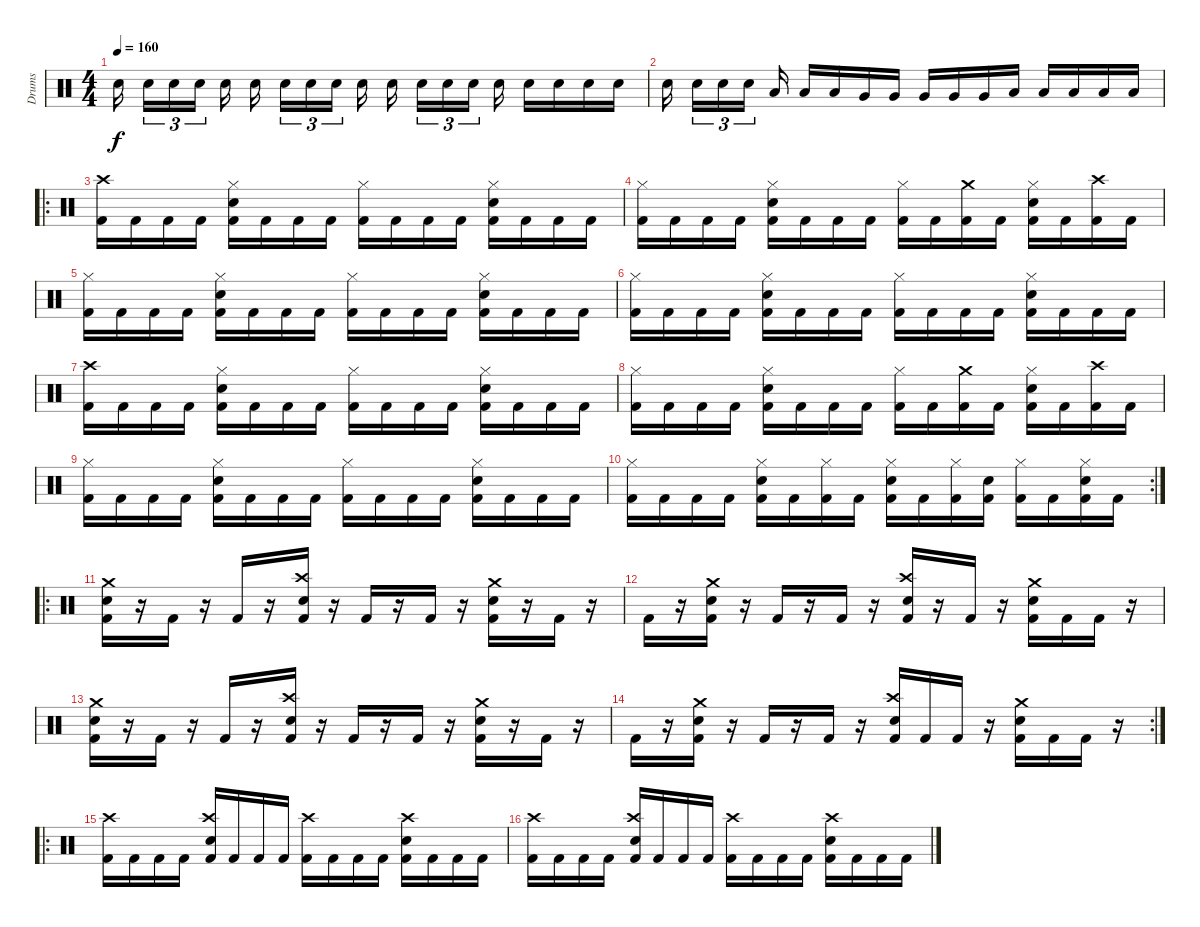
\track ("Drums" "Drums") {instrument percussion}
\staff {score}
\articulation defaults
\ts (4 4)
\tempo 160
\clef neutral
\ks c "Snare (hit) 2".16{dy f} "Snare (hit) 2".16{tu (3 2)} "Snare (hit) 2".16{tu (3 2)} "Snare (hit) 2".16{tu (3 2)} "Snare (hit) 2".16 "Snare (hit) 2".16 "Snare (hit) 2".16{tu (3 2)} "Snare (hit) 2".16{tu (3 2)} "Snare (hit) 2".16{tu (3 2)} "Snare (hit) 2".16 "Snare (hit) 2".16 "Snare (hit) 2".16{tu (3 2)} "Snare (hit) 2".16{tu (3 2)} "Snare (hit) 2".16{tu (3 2)} "Snare (hit) 2".16 "Snare (hit) 2".16 "Snare (hit) 2".16 "Snare (hit) 2".16 "Snare (hit) 2".16
|
"Snare (hit) 2".16 "Snare (hit) 2".16{tu (3 2)} "Snare (hit) 2".16{tu (3 2)} "Snare (hit) 2".16{tu (3 2)} "Low Tom (hit)".16 "Low Tom (hit)".16 "Low Tom (hit)".16 "Very Low Tom (hit)".16 "Very Low Tom (hit)".16 "Very Low Tom (hit)".16 "Very Low Tom (hit)".16 "Very Low Tom (hit)".16 "Low Floor Tom (hit)".16 "Low Floor Tom (hit)".16 "Low Floor Tom (hit)".16 "Low Floor Tom (hit)".16 "Low Floor Tom (hit)".16 |
\ro
("Crash high (hit)" "Kick (hit) 2").16 "Kick (hit) 2".16 "Kick (hit) 2".16 "Kick (hit) 2".16 ("Hi-Hat (closed)" "Snare (hit) 2" "Kick (hit) 2").16 "Kick (hit) 2".16 "Kick (hit) 2".16 "Kick (hit) 2".16 ("Hi-Hat (closed)" "Kick (hit) 2").16 "Kick (hit) 2".16 "Kick (hit) 2".16 "Kick (hit) 2".16 ("Hi-Hat (closed)" "Snare (hit) 2" "Kick (hit) 2").16 "Kick (hit) 2".16 "Kick (hit) 2".16 "Kick (hit) 2".16 |
("Hi-Hat (closed)" "Kick (hit) 2").16 "Kick (hit) 2".16 "Kick (hit) 2".16 "Kick (hit) 2".16 ("Hi-Hat (closed)" "Snare (hit) 2" "Kick (hit) 2").16 "Kick (hit) 2".16 "Kick (hit) 2".16 "Kick (hit) 2".16 ("Hi-Hat (closed)" "Kick (hit) 2").16 "Kick (hit) 2".16 ("Crash medium (hit)" "Kick (hit) 2").16 "Kick (hit) 2".16 ("Hi-Hat (closed)" "Snare (hit) 2" "Kick (hit) 2").16 "Kick (hit) 2".16 ("Crash high (hit)" "Kick (hit) 2").16 "Kick (hit) 2".16 |
("Hi-Hat (closed)" "Kick (hit) 2").16 "Kick (hit) 2".16 "Kick (hit) 2".16 "Kick (hit) 2".16 ("Hi-Hat (closed)" "Snare (hit) 2" "Kick (hit) 2").16 "Kick (hit) 2".16 "Kick (hit) 2".16 "Kick (hit) 2".16 ("Hi-Hat (closed)" "Kick (hit) 2").16 "Kick (hit) 2".16 "Kick (hit) 2".16 "Kick (hit) 2".16 ("Hi-Hat (closed)" "Snare (hit) 2" "Kick (hit) 2").16 "Kick (hit) 2".16 "Kick (hit) 2".16 "Kick (hit) 2".16 |
("Hi-Hat (closed)" "Kick (hit) 2").16 "Kick (hit) 2".16 "Kick (hit) 2".16 "Kick (hit) 2".16 ("Hi-Hat (closed)" "Snare (hit) 2" "Kick (hit) 2").16 "Kick (hit) 2".16 "Kick (hit) 2".16 "Kick (hit) 2".16 ("Hi-Hat (closed)" "Kick (hit) 2").16 "Kick (hit) 2".16 "Kick (hit) 2".16 "Kick (hit) 2".16 ("Hi-Hat (closed)" "Snare (hit) 2" "Kick (hit) 2").16 "Kick (hit) 2".16 "Kick (hit) 2".16 "Kick (hit) 2".16 |
("Crash high (hit)" "Kick (hit) 2").16 "Kick (hit) 2".16 "Kick (hit) 2".16 "Kick (hit) 2".16 ("Hi-Hat (closed)" "Snare (hit) 2" "Kick (hit) 2").16 "Kick (hit) 2".16 "Kick (hit) 2".16 "Kick (hit) 2".16 ("Hi-Hat (closed)" "Kick (hit) 2").16 "Kick (hit) 2".16 "Kick (hit) 2".16 "Kick (hit) 2".16 ("Hi-Hat (closed)" "Snare (hit) 2" "Kick (hit) 2").16 "Kick (hit) 2".16 "Kick (hit) 2".16 "Kick (hit) 2".16 |
("Hi-Hat (closed)" "Kick (hit) 2").16 "Kick (hit) 2".16 "Kick (hit) 2".16 "Kick (hit) 2".16 ("Hi-Hat (closed)" "Snare (hit) 2" "Kick (hit) 2").16 "Kick (hit) 2".16 "Kick (hit) 2".16 "Kick (hit) 2".16 ("Hi-Hat (closed)" "Kick (hit) 2").16 "Kick (hit) 2".16 ("Crash medium (hit)" "Kick (hit) 2").16 "Kick (hit) 2".16 ("Hi-Hat (closed)" "Snare (hit) 2" "Kick (hit) 2").16 "Kick (hit) 2".16 ("Crash high (hit)" "Kick (hit) 2").16 "Kick (hit) 2".16 |
("Hi-Hat (closed)" "Kick (hit) 2").16 "Kick (hit) 2".16 "Kick (hit) 2".16 "Kick (hit) 2".16 ("Hi-Hat (closed)" "Snare (hit) 2" "Kick (hit) 2").16 "Kick (hit) 2".16 "Kick (hit) 2".16 "Kick (hit) 2".16 ("Hi-Hat (closed)" "Kick (hit) 2").16 "Kick (hit) 2".16 "Kick (hit) 2".16 "Kick (hit) 2".16 ("Hi-Hat (closed)" "Snare (hit) 2" "Kick (hit) 2").16 "Kick (hit) 2".16 "Kick (hit) 2".16 "Kick (hit) 2".16 |
\rc 2
("Hi-Hat (closed)" "Kick (hit) 2").16 "Kick (hit) 2".16 "Kick (hit) 2".16 "Kick (hit) 2".16 ("Hi-Hat (closed)" "Snare (hit) 2" "Kick (hit) 2").16 "Kick (hit) 2".16 ("Hi-Hat (closed)" "Kick (hit) 2").16 "Kick (hit) 2".16 ("Hi-Hat (closed)" "Snare (hit) 2" "Kick (hit) 2").16 "Kick (hit) 2".16 ("Hi-Hat (closed)" "Kick (hit) 2").16 ("Snare (hit) 2" "Kick (hit) 2").16 ("Hi-Hat (closed)" "Kick (hit) 2").16 "Kick (hit) 2".16 ("Hi-Hat (closed)" "Snare (hit) 2" "Kick (hit) 2").16 "Kick (hit) 2".16 |
\ro
("Crash medium (hit)" "Snare (hit) 2" "Kick (hit) 2").16 r.16 "Kick (hit) 2".16 r.16 "Kick (hit) 2".16 r.16 ("Crash high (hit)" "Snare (hit) 2" "Kick (hit) 2").16 r.16 "Kick (hit) 2".16 r.16 "Kick (hit) 2".16 r.16 ("Crash medium (hit)" "Snare (hit) 2" "Kick (hit) 2").16 r.16 "Kick (hit) 2".16 r.16 |
"Kick (hit) 2".16 r.16 ("Crash medium (hit)" "Snare (hit) 2" "Kick (hit) 2").16 r.16 "Kick (hit) 2".16 r.16 "Kick (hit) 2".16 r.16 ("Crash high (hit)" "Snare (hit) 2" "Kick (hit) 2").16 r.16 "Kick (hit) 2".16 r.16 ("Crash medium (hit)" "Snare (hit) 2" "Kick (hit) 2").16 "Kick (hit) 2".16 "Kick (hit) 2".16 r.16 |
("Crash medium (hit)" "Snare (hit) 2" "Kick (hit) 2").16 r.16 "Kick (hit) 2".16 r.16 "Kick (hit) 2".16 r.16 ("Crash high (hit)" "Snare (hit) 2" "Kick (hit) 2").16 r.16 "Kick (hit) 2".16 r.16 "Kick (hit) 2".16 r.16 ("Crash medium (hit)" "Snare (hit) 2" "Kick (hit) 2").16 r.16 "Kick (hit) 2".16 r.16 |
\rc 2 "Kick (hit) 2".16
r.16 ("Crash medium (hit)" "Snare (hit) 2" "Kick (hit) 2").16 r.16 "Kick (hit) 2".16 r.16 "Kick (hit) 2".16 r.16 ("Crash high (hit)" "Snare (hit) 2" "Kick (hit) 2").16 "Kick (hit) 2".16 "Kick (hit) 2".16 r.16 ("Crash medium (hit)" "Snare (hit) 2" "Kick (hit) 2").16 "Kick (hit) 2".16 "Kick (hit) 2".16 r.16 |
\ro
("Crash high (hit)" "Kick (hit) 2").16 "Kick (hit) 2".16 "Kick (hit) 2".16 "Kick (hit) 2".16 ("Crash high (hit)" "Snare (hit) 2" "Kick (hit) 2").16 "Kick (hit) 2".16 "Kick (hit) 2".16 "Kick (hit) 2".16 ("Crash high (hit)" "Kick (hit) 2").16 "Kick (hit) 2".16 "Kick (hit) 2".16 "Kick (hit) 2".16 ("Crash high (hit)" "Electric Snare (hit)" "Kick (hit) 2").16 "Kick (hit) 2".16 "Kick (hit) 2".16 "Kick (hit) 2".16 |
("Crash high (hit)" "Kick (hit) 2").16 "Kick (hit) 2".16 "Kick (hit) 2".16 "Kick (hit) 2".16 ("Crash high (hit)" "Snare (hit) 2" "Kick (hit) 2").16 "Kick (hit) 2".16 "Kick (hit) 2".16 "Kick (hit) 2".16 ("Crash high (hit)" "Kick (hit) 2").16 "Kick (hit) 2".16 "Kick (hit) 2".16 "Kick (hit) 2".16 ("Crash high (hit)" "Electric Snare (hit)" "Kick (hit) 2").16 "Kick (hit) 2".16 "Kick (hit) 2".16 "Kick (hit) 2".16
